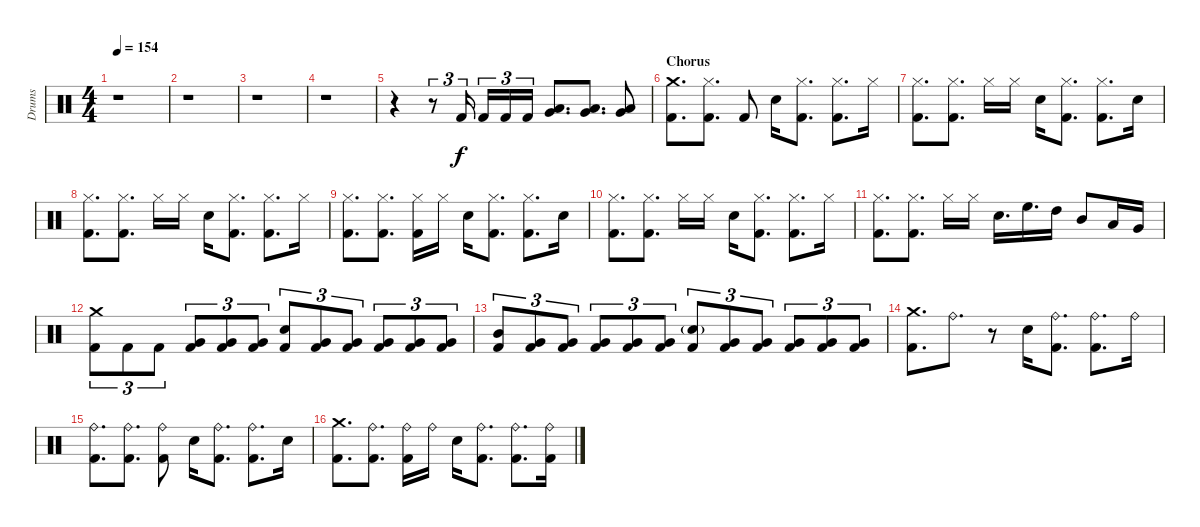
\track ("Drums" "Drums") {instrument percussion}
\staff {score}
\articulation defaults
\ts (4 4)
\tempo 154
\clef neutral
\ks c
r.1{dy f} |
r.1 |
r.1 |
r.1 |
r.4 r.8{tu (3 2)} "Kick (hit) 2".16{tu (3 2)} "Kick (hit) 2".16{tu (3 2)} "Kick (hit) 2".16{tu (3 2)} "Kick (hit) 2".16{tu (3 2)} ("Low Tom (hit)" "Very Low Tom (hit)").8{d} ("Low Tom (hit)" "Very Low Tom (hit)").8{d} ("Low Tom (hit)" "Very Low Tom (hit)").8 |
\section ("" "Chorus")
("Crash medium (hit)" "Kick (hit) 2").8{d} ("Hi-Hat (closed)" "Kick (hit) 2").8{d} "Kick (hit) 2".8 "Snare (hit) 2".16 ("Hi-Hat (closed)" "Kick (hit) 2").8{d} ("Hi-Hat (closed)" "Kick (hit) 2").8{d} "Hi-Hat (closed)".16 |
("Hi-Hat (closed)" "Kick (hit) 2").8{d} ("Hi-Hat (closed)" "Kick (hit) 2").8{d} "Hi-Hat (closed)".16 "Hi-Hat (closed)".16 "Snare (hit) 2".16 ("Hi-Hat (closed)" "Kick (hit) 2").8{d} ("Hi-Hat (closed)" "Kick (hit) 2").8{d} "Snare (hit) 2".16 |
("Hi-Hat (closed)" "Kick (hit) 2").8{d} ("Hi-Hat (closed)" "Kick (hit) 2").8{d} "Hi-Hat (closed)".16 "Hi-Hat (closed)".16 "Snare (hit) 2".16 ("Hi-Hat (closed)" "Kick (hit) 2").8{d} ("Hi-Hat (closed)" "Kick (hit) 2").8{d} "Hi-Hat (closed)".16 |
("Hi-Hat (closed)" "Kick (hit) 2").8{d} ("Hi-Hat (closed)" "Kick (hit) 2").8{d} ("Hi-Hat (closed)" "Kick (hit) 2").16 "Hi-Hat (closed)".16 "Snare (hit) 2".16 ("Hi-Hat (closed)" "Kick (hit) 2").8{d} ("Hi-Hat (closed)" "Kick (hit) 2").8{d} "Snare (hit) 2".16 |
("Hi-Hat (closed)" "Kick (hit) 2").8{d} ("Hi-Hat (closed)" "Kick (hit) 2").8{d} "Hi-Hat (closed)".16 "Hi-Hat (closed)".16 "Snare (hit) 2".16 ("Hi-Hat (closed)" "Kick (hit) 2").8{d} ("Hi-Hat (closed)" "Kick (hit) 2").8{d} "Hi-Hat (closed)".16 |
("Hi-Hat (closed)" "Kick (hit) 2").8{d} ("Hi-Hat (closed)" "Kick (hit) 2").8{d} "Hi-Hat (closed)".16 "Hi-Hat (closed)".16 "Snare (hit) 2".16{d} "High Floor Tom (hit)".16{d} "High Tom (hit)".16 "Mid Tom (hit)".8 "Low Tom (hit)".16 "Very Low Tom (hit)".16 |
("Crash medium (hit)" "Kick (hit) 2").8{tu (3 2)} "Kick (hit) 2".8{tu (3 2)} "Kick (hit) 2".8{tu (3 2)} ("Very Low Tom (hit)" "Kick (hit) 2").8{tu (3 2)} ("Very Low Tom (hit)" "Kick (hit) 2").8{tu (3 2)} ("Very Low Tom (hit)" "Kick (hit) 2").8{tu (3 2)} ("Snare (hit) 2" "Kick (hit) 2").8{tu (3 2)} ("Very Low Tom (hit)" "Kick (hit) 2").8{tu (3 2)} ("Very Low Tom (hit)" "Kick (hit) 2").8{tu (3 2)} ("Very Low Tom (hit)" "Kick (hit) 2").8{tu (3 2)} ("Very Low Tom (hit)" "Kick (hit) 2").8{tu (3 2)} ("Very Low Tom (hit)" "Kick (hit) 2").8{tu (3 2)} |
("Mid Tom (hit)" "Kick (hit) 2").8{tu (3 2)} ("Very Low Tom (hit)" "Kick (hit) 2").8{tu (3 2)} ("Very Low Tom (hit)" "Kick (hit) 2").8{tu (3 2)} ("Very Low Tom (hit)" "Kick (hit) 2").8{tu (3 2)} ("Very Low Tom (hit)" "Kick (hit) 2").8{tu (3 2)} ("Very Low Tom (hit)" "Kick (hit) 2").8{tu (3 2)} ("Snare (hit) 2"{g} "Kick (hit) 2").8{tu (3 2)} ("Very Low Tom (hit)" "Kick (hit) 2").8{tu (3 2)} ("Very Low Tom (hit)" "Kick (hit) 2").8{tu (3 2)} ("Very Low Tom (hit)" "Kick (hit) 2").8{tu (3 2)} ("Very Low Tom (hit)" "Kick (hit) 2").8{tu (3 2)} ("Very Low Tom (hit)" "Kick (hit) 2").8{tu (3 2)} |
("Crash medium (hit)" "Kick (hit) 2").8{d} "Ride (bell)".8{d} r.8 "Snare (hit) 2".16 ("Ride (bell)" "Kick (hit) 2").8{d} ("Ride (bell)" "Kick (hit) 2").8{d} "Ride (bell)".16 |
("Ride (bell)" "Kick (hit) 2").8{d} ("Ride (bell)" "Kick (hit) 2").8{d} ("Ride (bell)" "Kick (hit) 2").8 "Snare (hit) 2".16 ("Ride (bell)" "Kick (hit) 2").8{d} ("Ride (bell)" "Kick (hit) 2").8{d} "Snare (hit) 2".16 |
("Crash medium (hit)" "Kick (hit) 2").8{d} ("Ride (bell)" "Kick (hit) 2").8{d} ("Ride (bell)" "Kick (hit) 2").16 "Ride (bell)".16 "Snare (hit) 2".16 ("Ride (bell)" "Kick (hit) 2").8{d} ("Ride (bell)" "Kick (hit) 2").8{d} ("Ride (bell)" "Kick (hit) 2").16
